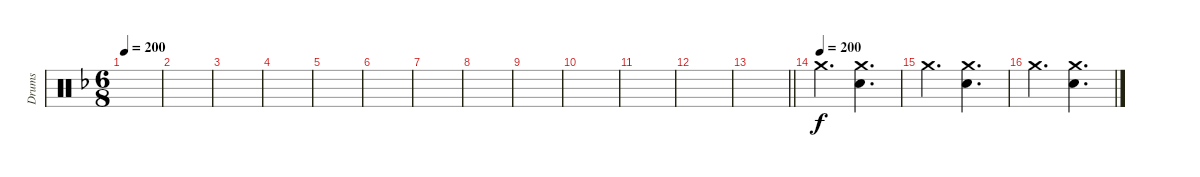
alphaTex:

\track ("Drums" "Drums") {instrument percussion}
\staff {score}
\articulation defaults
\ts (6 8)
\tempo 200
\clef neutral
\ks dminor
|
|
|
|
|
|
|
|
|
|
|
|
\barLineRight lightlight
|
\tempo (200)
"Crash medium (hit)".4{d} ("Crash medium (hit)" "Snare (hit) 2").4{d} |
"Crash medium (hit)".4{d} ("Crash medium (hit)" "Snare (hit) 2").4{d} |
"Crash medium (hit)".4{d} ("Crash medium (hit)" "Snare (hit) 2").4{d}
